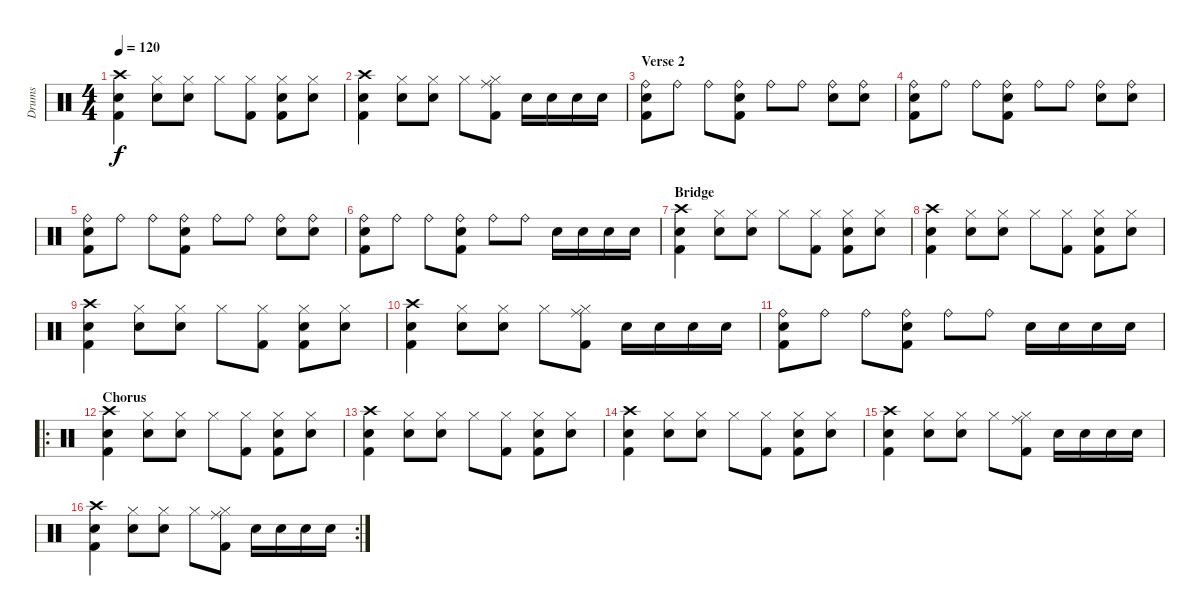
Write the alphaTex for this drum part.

\track ("Drums" "Drums") {instrument percussion}
\staff {score}
\articulation defaults
\ts (4 4)
\tempo 120
\clef neutral
\ks c
("Crash high (hit)" "Kick (hit) 2" "Snare (hit) 2").4{dy f} ("Hi-Hat (closed)" "Snare (hit) 2").8 ("Hi-Hat (closed)" "Snare (hit) 2").8 "Hi-Hat (closed)".8 ("Hi-Hat (closed)" "Kick (hit) 2").8 ("Hi-Hat (closed)" "Kick (hit) 2" "Snare (hit) 2").8 ("Hi-Hat (closed)" "Snare (hit) 2").8 |
("Crash high (hit)" "Kick (hit) 2" "Snare (hit) 2").4 ("Hi-Hat (closed)" "Snare (hit) 2").8 ("Hi-Hat (closed)" "Snare (hit) 2").8 "Hi-Hat (closed)".8 ("Ride (middle)" "Hi-Hat (closed)" "Kick (hit) 2").8 "Electric Snare (hit)".16 "Electric Snare (hit)".16 "Electric Snare (hit)".16 "Electric Snare (hit)".16 |
\section ("" "Verse 2")
("Ride (bell)" "Kick (hit) 2" "Snare (hit) 2").8 "Ride (bell)".8 "Ride (bell)".8 ("Ride (bell)" "Kick (hit) 2" "Snare (hit) 2").8 "Ride (bell)".8 "Ride (bell)".8 ("Ride (bell)" "Snare (hit) 2").8 ("Ride (bell)" "Snare (hit) 2").8 |
("Ride (bell)" "Kick (hit) 2" "Snare (hit) 2").8 "Ride (bell)".8 "Ride (bell)".8 ("Ride (bell)" "Kick (hit) 2" "Snare (hit) 2").8 "Ride (bell)".8 "Ride (bell)".8 ("Ride (bell)" "Snare (hit) 2").8 ("Ride (bell)" "Snare (hit) 2").8 |
("Ride (bell)" "Kick (hit) 2" "Snare (hit) 2").8 "Ride (bell)".8 "Ride (bell)".8 ("Ride (bell)" "Kick (hit) 2" "Snare (hit) 2").8 "Ride (bell)".8 "Ride (bell)".8 ("Ride (bell)" "Snare (hit) 2").8 ("Ride (bell)" "Snare (hit) 2").8 |
("Ride (bell)" "Kick (hit) 2" "Snare (hit) 2").8 "Ride (bell)".8 "Ride (bell)".8 ("Ride (bell)" "Kick (hit) 2" "Snare (hit) 2").8 "Ride (bell)".8 "Ride (bell)".8 "Snare (hit) 2".16 "Snare (hit) 2".16 "Snare (hit) 2".16 "Snare (hit) 2".16 |
\section ("" "Bridge")
("Crash high (hit)" "Kick (hit) 2" "Snare (hit) 2").4 ("Hi-Hat (closed)" "Snare (hit) 2").8 ("Hi-Hat (closed)" "Snare (hit) 2").8 "Hi-Hat (closed)".8 ("Hi-Hat (closed)" "Kick (hit) 2").8 ("Hi-Hat (closed)" "Kick (hit) 2" "Snare (hit) 2").8 ("Hi-Hat (closed)" "Snare (hit) 2").8 |
("Crash high (hit)" "Kick (hit) 2" "Snare (hit) 2").4 ("Hi-Hat (closed)" "Snare (hit) 2").8 ("Hi-Hat (closed)" "Snare (hit) 2").8 "Hi-Hat (closed)".8 ("Hi-Hat (closed)" "Kick (hit) 2").8 ("Hi-Hat (closed)" "Kick (hit) 2" "Snare (hit) 2").8 ("Hi-Hat (closed)" "Snare (hit) 2").8 |
("Crash high (hit)" "Kick (hit) 2" "Snare (hit) 2").4 ("Hi-Hat (closed)" "Snare (hit) 2").8 ("Hi-Hat (closed)" "Snare (hit) 2").8 "Hi-Hat (closed)".8 ("Hi-Hat (closed)" "Kick (hit) 2").8 ("Hi-Hat (closed)" "Kick (hit) 2" "Snare (hit) 2").8 ("Hi-Hat (closed)" "Snare (hit) 2").8 |
("Crash high (hit)" "Kick (hit) 2" "Snare (hit) 2").4 ("Hi-Hat (closed)" "Snare (hit) 2").8 ("Hi-Hat (closed)" "Snare (hit) 2").8 "Hi-Hat (closed)".8 ("Ride (middle)" "Hi-Hat (closed)" "Kick (hit) 2").8 "Electric Snare (hit)".16 "Electric Snare (hit)".16 "Electric Snare (hit)".16 "Electric Snare (hit)".16 |
("Ride (bell)" "Kick (hit) 2" "Snare (hit) 2").8 "Ride (bell)".8 "Ride (bell)".8 ("Ride (bell)" "Kick (hit) 2" "Snare (hit) 2").8 "Ride (bell)".8 "Ride (bell)".8 "Snare (hit) 2".16 "Snare (hit) 2".16 "Snare (hit) 2".16 "Snare (hit) 2".16 |
\ro
\section ("" "Chorus")
("Crash high (hit)" "Kick (hit) 2" "Snare (hit) 2").4 ("Hi-Hat (closed)" "Snare (hit) 2").8 ("Hi-Hat (closed)" "Snare (hit) 2").8 "Hi-Hat (closed)".8 ("Hi-Hat (closed)" "Kick (hit) 2").8 ("Hi-Hat (closed)" "Kick (hit) 2" "Snare (hit) 2").8 ("Hi-Hat (closed)" "Snare (hit) 2").8 |
("Crash high (hit)" "Kick (hit) 2" "Snare (hit) 2").4 ("Hi-Hat (closed)" "Snare (hit) 2").8 ("Hi-Hat (closed)" "Snare (hit) 2").8 "Hi-Hat (closed)".8 ("Hi-Hat (closed)" "Kick (hit) 2").8 ("Hi-Hat (closed)" "Kick (hit) 2" "Snare (hit) 2").8 ("Hi-Hat (closed)" "Snare (hit) 2").8 |
("Crash high (hit)" "Kick (hit) 2" "Snare (hit) 2").4 ("Hi-Hat (closed)" "Snare (hit) 2").8 ("Hi-Hat (closed)" "Snare (hit) 2").8 "Hi-Hat (closed)".8 ("Hi-Hat (closed)" "Kick (hit) 2").8 ("Hi-Hat (closed)" "Kick (hit) 2" "Snare (hit) 2").8 ("Hi-Hat (closed)" "Snare (hit) 2").8 |
("Crash high (hit)" "Kick (hit) 2" "Snare (hit) 2").4 ("Hi-Hat (closed)" "Snare (hit) 2").8 ("Hi-Hat (closed)" "Snare (hit) 2").8 "Hi-Hat (closed)".8 ("Ride (middle)" "Hi-Hat (closed)" "Kick (hit) 2").8 "Electric Snare (hit)".16 "Electric Snare (hit)".16 "Electric Snare (hit)".16 "Electric Snare (hit)".16 |
\rc 2
("Crash high (hit)" "Kick (hit) 2" "Snare (hit) 2").4 ("Hi-Hat (closed)" "Snare (hit) 2").8 ("Hi-Hat (closed)" "Snare (hit) 2").8 "Hi-Hat (closed)".8 ("Ride (middle)" "Hi-Hat (closed)" "Kick (hit) 2").8 "Electric Snare (hit)".16 "Electric Snare (hit)".16 "Electric Snare (hit)".16 "Electric Snare (hit)".16
